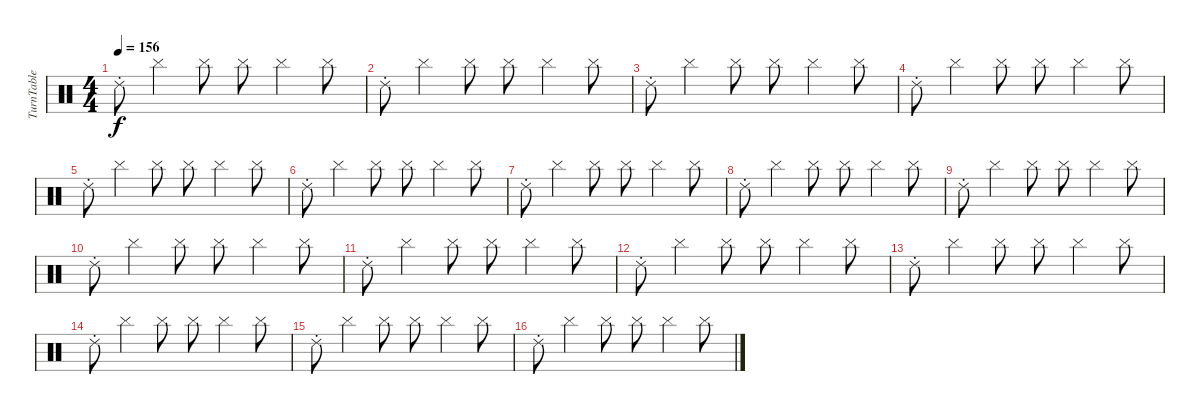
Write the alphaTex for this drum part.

\track ("TurnTable" "TurnTable") {instrument percussion}
\staff {score}
\articulation defaults
\ts (4 4)
\tempo 156
\clef neutral
\ks c "Ride (choke) 2".8{dy f} "Cymbal (hit)".4 "Cymbal (hit)".8 "Cymbal (hit)".8 "Cymbal (hit)".4 "Cymbal (hit)".8
|
"Ride (choke) 2".8 "Cymbal (hit)".4 "Cymbal (hit)".8 "Cymbal (hit)".8 "Cymbal (hit)".4 "Cymbal (hit)".8 |
"Ride (choke) 2".8 "Cymbal (hit)".4 "Cymbal (hit)".8 "Cymbal (hit)".8 "Cymbal (hit)".4 "Cymbal (hit)".8 |
"Ride (choke) 2".8 "Cymbal (hit)".4 "Cymbal (hit)".8 "Cymbal (hit)".8 "Cymbal (hit)".4 "Cymbal (hit)".8 |
"Ride (choke) 2".8 "Cymbal (hit)".4 "Cymbal (hit)".8 "Cymbal (hit)".8 "Cymbal (hit)".4 "Cymbal (hit)".8 |
"Ride (choke) 2".8 "Cymbal (hit)".4 "Cymbal (hit)".8 "Cymbal (hit)".8 "Cymbal (hit)".4 "Cymbal (hit)".8 |
"Ride (choke) 2".8 "Cymbal (hit)".4 "Cymbal (hit)".8 "Cymbal (hit)".8 "Cymbal (hit)".4 "Cymbal (hit)".8 |
"Ride (choke) 2".8 "Cymbal (hit)".4 "Cymbal (hit)".8 "Cymbal (hit)".8 "Cymbal (hit)".4 "Cymbal (hit)".8 |
"Ride (choke) 2".8 "Cymbal (hit)".4 "Cymbal (hit)".8 "Cymbal (hit)".8 "Cymbal (hit)".4 "Cymbal (hit)".8 |
"Ride (choke) 2".8 "Cymbal (hit)".4 "Cymbal (hit)".8 "Cymbal (hit)".8 "Cymbal (hit)".4 "Cymbal (hit)".8 |
"Ride (choke) 2".8 "Cymbal (hit)".4 "Cymbal (hit)".8 "Cymbal (hit)".8 "Cymbal (hit)".4 "Cymbal (hit)".8 |
"Ride (choke) 2".8 "Cymbal (hit)".4 "Cymbal (hit)".8 "Cymbal (hit)".8 "Cymbal (hit)".4 "Cymbal (hit)".8 |
"Ride (choke) 2".8 "Cymbal (hit)".4 "Cymbal (hit)".8 "Cymbal (hit)".8 "Cymbal (hit)".4 "Cymbal (hit)".8 |
"Ride (choke) 2".8 "Cymbal (hit)".4 "Cymbal (hit)".8 "Cymbal (hit)".8 "Cymbal (hit)".4 "Cymbal (hit)".8 |
"Ride (choke) 2".8 "Cymbal (hit)".4 "Cymbal (hit)".8 "Cymbal (hit)".8 "Cymbal (hit)".4 "Cymbal (hit)".8 |
"Ride (choke) 2".8 "Cymbal (hit)".4 "Cymbal (hit)".8 "Cymbal (hit)".8 "Cymbal (hit)".4 "Cymbal (hit)".8
